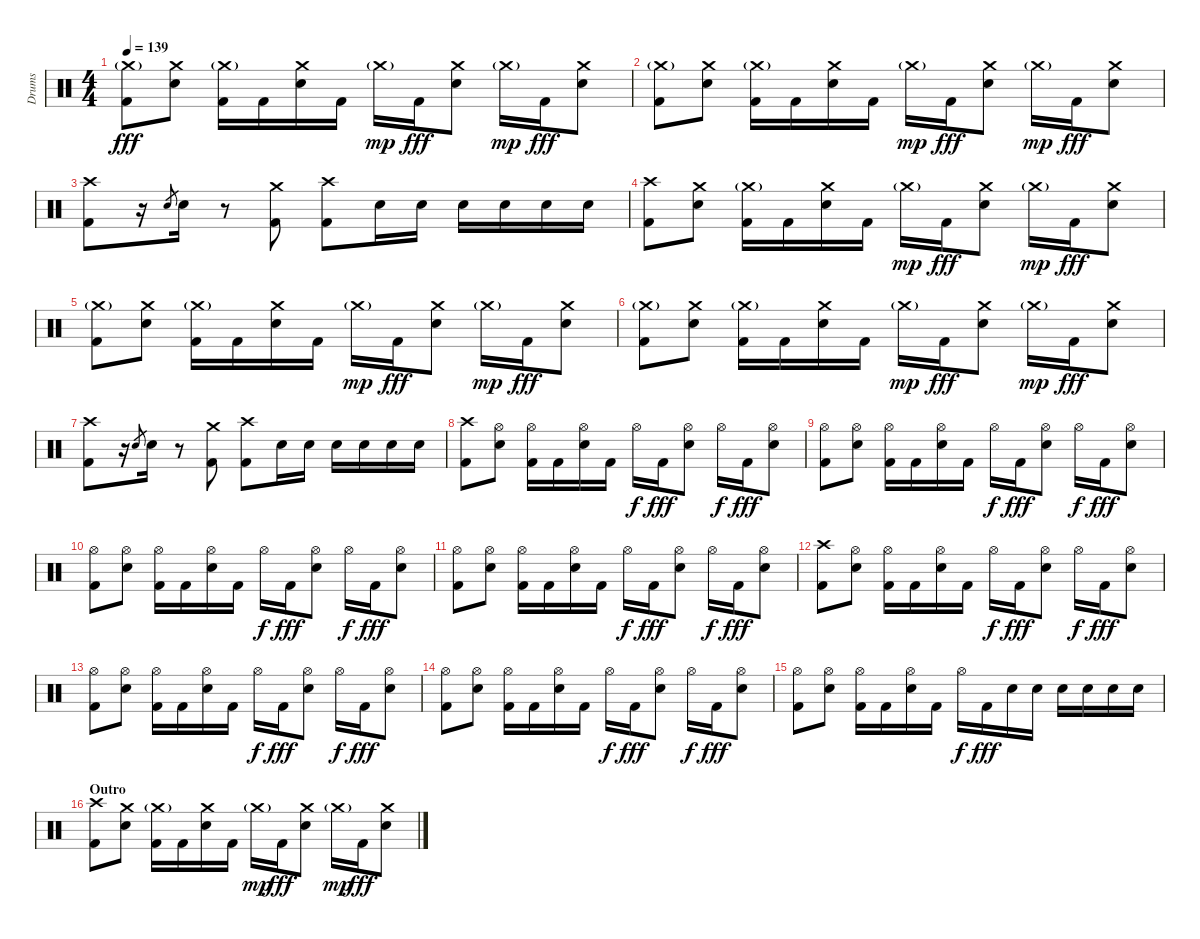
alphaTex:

\track ("Drums" "Drums") {instrument percussion}
\staff {score}
\articulation defaults
\ts (4 4)
\tempo 139
\clef neutral
\ks c
("Crash medium (hit)"{g} "Kick (hit) 2").8{dy fff} ("Crash medium (hit)" "Electric Snare (hit)").8 ("Crash medium (hit)"{g} "Kick (hit) 2").16 "Kick (hit) 2".16 ("Crash medium (hit)" "Electric Snare (hit)").16 "Kick (hit) 2".16 "Crash medium (hit)"{g}.16{dy mp} "Kick (hit) 2".16{dy fff} ("Crash medium (hit)" "Electric Snare (hit)").8 "Crash medium (hit)"{g}.16{dy mp} "Kick (hit) 2".16{dy fff} ("Crash medium (hit)" "Electric Snare (hit)").8 |
("Crash medium (hit)"{g} "Kick (hit) 2").8 ("Crash medium (hit)" "Electric Snare (hit)").8 ("Crash medium (hit)"{g} "Kick (hit) 2").16 "Kick (hit) 2".16 ("Crash medium (hit)" "Electric Snare (hit)").16 "Kick (hit) 2".16 "Crash medium (hit)"{g}.16{dy mp} "Kick (hit) 2".16{dy fff} ("Crash medium (hit)" "Electric Snare (hit)").8 "Crash medium (hit)"{g}.16{dy mp} "Kick (hit) 2".16{dy fff} ("Crash medium (hit)" "Electric Snare (hit)").8 |
("Crash high (hit)" "Kick (hit) 2").8 r.16 "Electric Snare (hit)".8{gr} "Electric Snare (hit)".16 r.8 ("Crash medium (hit)" "Kick (hit) 2").8 ("Crash high (hit)" "Kick (hit) 2").8 "Electric Snare (hit)".16 "Electric Snare (hit)".16 "Electric Snare (hit)".16 "Electric Snare (hit)".16 "Electric Snare (hit)".16 "Electric Snare (hit)".16 |
("Crash high (hit)" "Kick (hit) 2").8 ("Crash medium (hit)" "Electric Snare (hit)").8 ("Crash medium (hit)"{g} "Kick (hit) 2").16 "Kick (hit) 2".16 ("Crash medium (hit)" "Electric Snare (hit)").16 "Kick (hit) 2".16 "Crash medium (hit)"{g}.16{dy mp} "Kick (hit) 2".16{dy fff} ("Crash medium (hit)" "Electric Snare (hit)").8 "Crash medium (hit)"{g}.16{dy mp} "Kick (hit) 2".16{dy fff} ("Crash medium (hit)" "Electric Snare (hit)").8 |
("Crash medium (hit)"{g} "Kick (hit) 2").8 ("Crash medium (hit)" "Electric Snare (hit)").8 ("Crash medium (hit)"{g} "Kick (hit) 2").16 "Kick (hit) 2".16 ("Crash medium (hit)" "Electric Snare (hit)").16 "Kick (hit) 2".16 "Crash medium (hit)"{g}.16{dy mp} "Kick (hit) 2".16{dy fff} ("Crash medium (hit)" "Electric Snare (hit)").8 "Crash medium (hit)"{g}.16{dy mp} "Kick (hit) 2".16{dy fff} ("Crash medium (hit)" "Electric Snare (hit)").8 |
("Crash medium (hit)"{g} "Kick (hit) 2").8 ("Crash medium (hit)" "Electric Snare (hit)").8 ("Crash medium (hit)"{g} "Kick (hit) 2").16 "Kick (hit) 2".16 ("Crash medium (hit)" "Electric Snare (hit)").16 "Kick (hit) 2".16 "Crash medium (hit)"{g}.16{dy mp} "Kick (hit) 2".16{dy fff} ("Crash medium (hit)" "Electric Snare (hit)").8 "Crash medium (hit)"{g}.16{dy mp} "Kick (hit) 2".16{dy fff} ("Crash medium (hit)" "Electric Snare (hit)").8 |
("Crash high (hit)" "Kick (hit) 2").8 r.16 "Electric Snare (hit)".8{gr} "Electric Snare (hit)".16 r.8 ("Crash medium (hit)" "Kick (hit) 2").8 ("Crash high (hit)" "Kick (hit) 2").8 "Electric Snare (hit)".16 "Electric Snare (hit)".16 "Electric Snare (hit)".16 "Electric Snare (hit)".16 "Electric Snare (hit)".16 "Electric Snare (hit)".16 |
("Crash high (hit)" "Kick (hit) 2").8 ("Hi-Hat (open)" "Electric Snare (hit)").8 ("Hi-Hat (open)" "Kick (hit) 2").16 "Kick (hit) 2".16 ("Hi-Hat (open)" "Electric Snare (hit)").16 "Kick (hit) 2".16 "Hi-Hat (open)".16{dy f} "Kick (hit) 2".16{dy fff} ("Hi-Hat (open)" "Electric Snare (hit)").8 "Hi-Hat (open)".16{dy f} "Kick (hit) 2".16{dy fff} ("Hi-Hat (open)" "Electric Snare (hit)").8 |
("Hi-Hat (open)" "Kick (hit) 2").8 ("Hi-Hat (open)" "Electric Snare (hit)").8 ("Hi-Hat (open)" "Kick (hit) 2").16 "Kick (hit) 2".16 ("Hi-Hat (open)" "Electric Snare (hit)").16 "Kick (hit) 2".16 "Hi-Hat (open)".16{dy f} "Kick (hit) 2".16{dy fff} ("Hi-Hat (open)" "Electric Snare (hit)").8 "Hi-Hat (open)".16{dy f} "Kick (hit) 2".16{dy fff} ("Hi-Hat (open)" "Electric Snare (hit)").8 |
("Hi-Hat (open)" "Kick (hit) 2").8 ("Hi-Hat (open)" "Electric Snare (hit)").8 ("Hi-Hat (open)" "Kick (hit) 2").16 "Kick (hit) 2".16 ("Hi-Hat (open)" "Electric Snare (hit)").16 "Kick (hit) 2".16 "Hi-Hat (open)".16{dy f} "Kick (hit) 2".16{dy fff} ("Hi-Hat (open)" "Electric Snare (hit)").8 "Hi-Hat (open)".16{dy f} "Kick (hit) 2".16{dy fff} ("Hi-Hat (open)" "Electric Snare (hit)").8 |
("Hi-Hat (open)" "Kick (hit) 2").8 ("Hi-Hat (open)" "Electric Snare (hit)").8 ("Hi-Hat (open)" "Kick (hit) 2").16 "Kick (hit) 2".16 ("Hi-Hat (open)" "Electric Snare (hit)").16 "Kick (hit) 2".16 "Hi-Hat (open)".16{dy f} "Kick (hit) 2".16{dy fff} ("Hi-Hat (open)" "Electric Snare (hit)").8 "Hi-Hat (open)".16{dy f} "Kick (hit) 2".16{dy fff} ("Hi-Hat (open)" "Electric Snare (hit)").8 |
("Crash high (hit)" "Kick (hit) 2").8 ("Hi-Hat (open)" "Electric Snare (hit)").8 ("Hi-Hat (open)" "Kick (hit) 2").16 "Kick (hit) 2".16 ("Hi-Hat (open)" "Electric Snare (hit)").16 "Kick (hit) 2".16 "Hi-Hat (open)".16{dy f} "Kick (hit) 2".16{dy fff} ("Hi-Hat (open)" "Electric Snare (hit)").8 "Hi-Hat (open)".16{dy f} "Kick (hit) 2".16{dy fff} ("Hi-Hat (open)" "Electric Snare (hit)").8 |
("Hi-Hat (open)" "Kick (hit) 2").8 ("Hi-Hat (open)" "Electric Snare (hit)").8 ("Hi-Hat (open)" "Kick (hit) 2").16 "Kick (hit) 2".16 ("Hi-Hat (open)" "Electric Snare (hit)").16 "Kick (hit) 2".16 "Hi-Hat (open)".16{dy f} "Kick (hit) 2".16{dy fff} ("Hi-Hat (open)" "Electric Snare (hit)").8 "Hi-Hat (open)".16{dy f} "Kick (hit) 2".16{dy fff} ("Hi-Hat (open)" "Electric Snare (hit)").8 |
("Hi-Hat (open)" "Kick (hit) 2").8 ("Hi-Hat (open)" "Electric Snare (hit)").8 ("Hi-Hat (open)" "Kick (hit) 2").16 "Kick (hit) 2".16 ("Hi-Hat (open)" "Electric Snare (hit)").16 "Kick (hit) 2".16 "Hi-Hat (open)".16{dy f} "Kick (hit) 2".16{dy fff} ("Hi-Hat (open)" "Electric Snare (hit)").8 "Hi-Hat (open)".16{dy f} "Kick (hit) 2".16{dy fff} ("Hi-Hat (open)" "Electric Snare (hit)").8 |
("Hi-Hat (open)" "Kick (hit) 2").8 ("Hi-Hat (open)" "Electric Snare (hit)").8 ("Hi-Hat (open)" "Kick (hit) 2").16 "Kick (hit) 2".16 ("Hi-Hat (open)" "Electric Snare (hit)").16 "Kick (hit) 2".16 "Hi-Hat (open)".16{dy f} "Kick (hit) 2".16{dy fff} "Electric Snare (hit)".16 "Electric Snare (hit)".16 "Electric Snare (hit)".16 "Electric Snare (hit)".16 "Electric Snare (hit)".16 "Electric Snare (hit)".16 |
\section ("" "Outro")
("Crash high (hit)" "Kick (hit) 2").8 ("Crash medium (hit)" "Electric Snare (hit)").8 ("Crash medium (hit)"{g} "Kick (hit) 2").16 "Kick (hit) 2".16 ("Crash medium (hit)" "Electric Snare (hit)").16 "Kick (hit) 2".16 "Crash medium (hit)"{g}.16{dy mp} "Kick (hit) 2".16{dy fff} ("Crash medium (hit)" "Electric Snare (hit)").8 "Crash medium (hit)"{g}.16{dy mp} "Kick (hit) 2".16{dy fff} ("Crash medium (hit)" "Electric Snare (hit)").8
